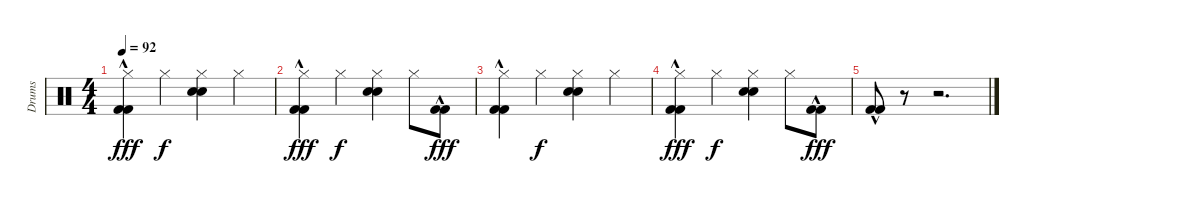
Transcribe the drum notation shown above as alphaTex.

\track ("Drums" "Drums") {instrument percussion}
\staff {score}
\articulation defaults
\ts (4 4)
\tempo 92
\clef neutral
\ks c
("Hi-Hat (closed)" "Kick (hit) 2"{hac} "Kick (hit) 2"{hac}).4{dy fff} "Hi-Hat (closed)".4{dy f} ("Hi-Hat (closed)" "Snare (hit) 2" "Electric Snare (hit)").4 "Hi-Hat (closed)".4 |
("Hi-Hat (closed)" "Kick (hit) 2"{hac} "Kick (hit) 2"{hac}).4{dy fff} "Hi-Hat (closed)".4{dy f} ("Hi-Hat (closed)" "Snare (hit) 2" "Electric Snare (hit)").4 "Hi-Hat (closed)".8 ("Kick (hit) 2"{hac} "Kick (hit) 2"{hac}).8{dy fff} |
("Hi-Hat (closed)" "Kick (hit) 2"{hac} "Kick (hit) 2"{hac}).4 "Hi-Hat (closed)".4{dy f} ("Hi-Hat (closed)" "Snare (hit) 2" "Electric Snare (hit)").4 "Hi-Hat (closed)".4 |
("Hi-Hat (closed)" "Kick (hit) 2"{hac} "Kick (hit) 2"{hac}).4{dy fff} "Hi-Hat (closed)".4{dy f} ("Hi-Hat (closed)" "Snare (hit) 2" "Electric Snare (hit)").4 "Hi-Hat (closed)".8 ("Kick (hit) 2"{hac} "Kick (hit) 2"{hac}).8{dy fff} |
("Kick (hit) 2"{hac} "Kick (hit) 2"{hac}).8 r.8 r.2{d}
